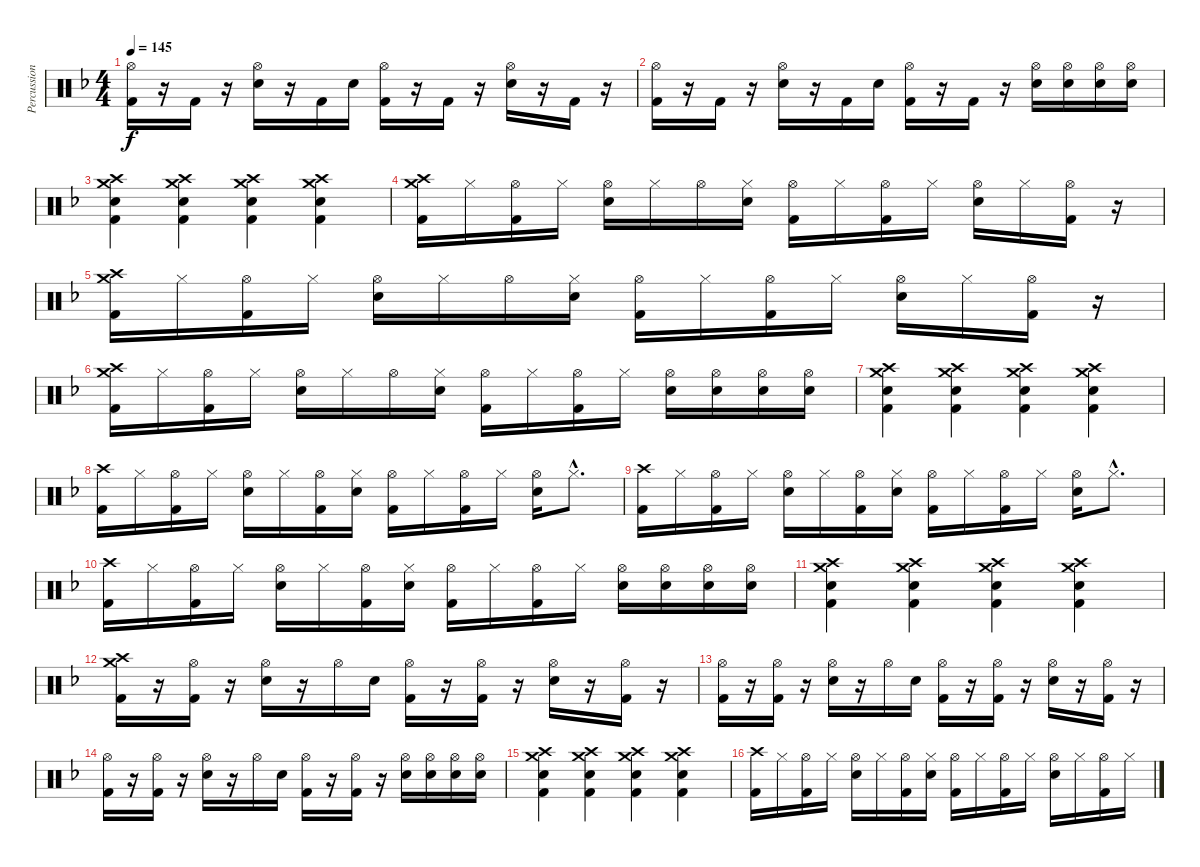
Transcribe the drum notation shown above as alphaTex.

\track ("Percussion" "Percussion") {instrument percussion}
\staff {score}
\articulation defaults
\ts (4 4)
\tempo 145
\clef neutral
\ks f
("Hi-Hat (open)" "Kick (hit) 2").16{dy f} r.16 "Kick (hit) 2".16 r.16 ("Hi-Hat (open)" "Electric Snare (hit)").16 r.16 "Kick (hit) 2".16 "Electric Snare (hit)".16 ("Hi-Hat (open)" "Kick (hit) 2").16 r.16 "Kick (hit) 2".16 r.16 ("Hi-Hat (open)" "Electric Snare (hit)").16 r.16 "Kick (hit) 2".16 r.16 |
("Hi-Hat (open)" "Kick (hit) 2").16 r.16 "Kick (hit) 2".16 r.16 ("Hi-Hat (open)" "Electric Snare (hit)").16 r.16 "Kick (hit) 2".16 "Electric Snare (hit)".16 ("Hi-Hat (open)" "Kick (hit) 2").16 r.16 "Kick (hit) 2".16 r.16 ("Hi-Hat (open)" "Electric Snare (hit)").16 ("Hi-Hat (open)" "Electric Snare (hit)").16 ("Hi-Hat (open)" "Electric Snare (hit)").16 ("Hi-Hat (open)" "Electric Snare (hit)").16 |
("Crash high (hit)" "Crash medium (hit)" "Electric Snare (hit)" "Kick (hit) 2").4 ("Crash high (hit)" "Crash medium (hit)" "Electric Snare (hit)" "Kick (hit) 2").4 ("Crash high (hit)" "Crash medium (hit)" "Electric Snare (hit)" "Kick (hit) 2").4 ("Crash high (hit)" "Crash medium (hit)" "Electric Snare (hit)" "Kick (hit) 2").4 |
("Crash high (hit)" "Crash medium (hit)" "Kick (hit) 2").16 "Hi-Hat (closed)".16 ("Hi-Hat (open)" "Kick (hit) 2").16 "Hi-Hat (closed)".16 ("Hi-Hat (open)" "Electric Snare (hit)").16 "Hi-Hat (closed)".16 "Hi-Hat (open)".16 ("Hi-Hat (closed)" "Electric Snare (hit)").16 ("Hi-Hat (open)" "Kick (hit) 2").16 "Hi-Hat (closed)".16 ("Hi-Hat (open)" "Kick (hit) 2").16 "Hi-Hat (closed)".16 ("Hi-Hat (open)" "Electric Snare (hit)").16 "Hi-Hat (closed)".16 ("Hi-Hat (open)" "Kick (hit) 2").16 r.16 |
("Crash high (hit)" "Crash medium (hit)" "Kick (hit) 2").16 "Hi-Hat (closed)".16 ("Hi-Hat (open)" "Kick (hit) 2").16 "Hi-Hat (closed)".16 ("Hi-Hat (open)" "Electric Snare (hit)").16 "Hi-Hat (closed)".16 "Hi-Hat (open)".16 ("Hi-Hat (closed)" "Electric Snare (hit)").16 ("Hi-Hat (open)" "Kick (hit) 2").16 "Hi-Hat (closed)".16 ("Hi-Hat (open)" "Kick (hit) 2").16 "Hi-Hat (closed)".16 ("Hi-Hat (open)" "Electric Snare (hit)").16 "Hi-Hat (closed)".16 ("Hi-Hat (open)" "Kick (hit) 2").16 r.16 |
("Crash high (hit)" "Crash medium (hit)" "Kick (hit) 2").16 "Hi-Hat (closed)".16 ("Hi-Hat (open)" "Kick (hit) 2").16 "Hi-Hat (closed)".16 ("Hi-Hat (open)" "Electric Snare (hit)").16 "Hi-Hat (closed)".16 "Hi-Hat (open)".16 ("Hi-Hat (closed)" "Electric Snare (hit)").16 ("Hi-Hat (open)" "Kick (hit) 2").16 "Hi-Hat (closed)".16 ("Hi-Hat (open)" "Kick (hit) 2").16 "Hi-Hat (closed)".16 ("Hi-Hat (open)" "Electric Snare (hit)").16 ("Hi-Hat (open)" "Electric Snare (hit)").16 ("Hi-Hat (open)" "Electric Snare (hit)").16 ("Hi-Hat (open)" "Electric Snare (hit)").16 |
("Crash high (hit)" "Crash medium (hit)" "Electric Snare (hit)" "Kick (hit) 2").4 ("Crash high (hit)" "Crash medium (hit)" "Electric Snare (hit)" "Kick (hit) 2").4 ("Crash high (hit)" "Crash medium (hit)" "Electric Snare (hit)" "Kick (hit) 2").4 ("Crash high (hit)" "Crash medium (hit)" "Electric Snare (hit)" "Kick (hit) 2").4 |
("Crash high (hit)" "Kick (hit) 2").16 "Hi-Hat (closed)".16 ("Hi-Hat (open)" "Kick (hit) 2").16 "Hi-Hat (closed)".16 ("Hi-Hat (open)" "Electric Snare (hit)").16 "Hi-Hat (closed)".16 ("Hi-Hat (open)" "Kick (hit) 2").16 ("Hi-Hat (closed)" "Electric Snare (hit)").16 ("Hi-Hat (open)" "Kick (hit) 2").16 "Hi-Hat (closed)".16 ("Hi-Hat (open)" "Kick (hit) 2").16 "Hi-Hat (closed)".16 ("Hi-Hat (open)" "Electric Snare (hit)").16 "Hi-Hat (closed)"{hac}.8{d} |
("Crash high (hit)" "Kick (hit) 2").16 "Hi-Hat (closed)".16 ("Hi-Hat (open)" "Kick (hit) 2").16 "Hi-Hat (closed)".16 ("Hi-Hat (open)" "Electric Snare (hit)").16 "Hi-Hat (closed)".16 ("Hi-Hat (open)" "Kick (hit) 2").16 ("Hi-Hat (closed)" "Electric Snare (hit)").16 ("Hi-Hat (open)" "Kick (hit) 2").16 "Hi-Hat (closed)".16 ("Hi-Hat (open)" "Kick (hit) 2").16 "Hi-Hat (closed)".16 ("Hi-Hat (open)" "Electric Snare (hit)").16 "Hi-Hat (closed)"{hac}.8{d} |
("Crash high (hit)" "Kick (hit) 2").16 "Hi-Hat (closed)".16 ("Hi-Hat (open)" "Kick (hit) 2").16 "Hi-Hat (closed)".16 ("Hi-Hat (open)" "Electric Snare (hit)").16 "Hi-Hat (closed)".16 ("Hi-Hat (open)" "Kick (hit) 2").16 ("Hi-Hat (closed)" "Electric Snare (hit)").16 ("Hi-Hat (open)" "Kick (hit) 2").16 "Hi-Hat (closed)".16 ("Hi-Hat (open)" "Kick (hit) 2").16 "Hi-Hat (closed)".16 ("Hi-Hat (open)" "Electric Snare (hit)").16 ("Hi-Hat (open)" "Electric Snare (hit)").16 ("Hi-Hat (open)" "Electric Snare (hit)").16 ("Hi-Hat (open)" "Electric Snare (hit)").16 |
("Crash high (hit)" "Crash medium (hit)" "Electric Snare (hit)" "Kick (hit) 2").4 ("Crash high (hit)" "Crash medium (hit)" "Electric Snare (hit)" "Kick (hit) 2").4 ("Crash high (hit)" "Crash medium (hit)" "Electric Snare (hit)" "Kick (hit) 2").4 ("Crash high (hit)" "Crash medium (hit)" "Electric Snare (hit)" "Kick (hit) 2").4 |
("Crash high (hit)" "Crash medium (hit)" "Kick (hit) 2").16 r.16 ("Hi-Hat (open)" "Kick (hit) 2").16 r.16 ("Hi-Hat (open)" "Electric Snare (hit)").16 r.16 "Hi-Hat (open)".16 "Electric Snare (hit)".16 ("Hi-Hat (open)" "Kick (hit) 2").16 r.16 ("Hi-Hat (open)" "Kick (hit) 2").16 r.16 ("Hi-Hat (open)" "Electric Snare (hit)").16 r.16 ("Hi-Hat (open)" "Kick (hit) 2").16 r.16 |
("Hi-Hat (open)" "Kick (hit) 2").16 r.16 ("Hi-Hat (open)" "Kick (hit) 2").16 r.16 ("Hi-Hat (open)" "Electric Snare (hit)").16 r.16 "Hi-Hat (open)".16 "Electric Snare (hit)".16 ("Hi-Hat (open)" "Kick (hit) 2").16 r.16 ("Hi-Hat (open)" "Kick (hit) 2").16 r.16 ("Hi-Hat (open)" "Electric Snare (hit)").16 r.16 ("Hi-Hat (open)" "Kick (hit) 2").16 r.16 |
("Hi-Hat (open)" "Kick (hit) 2").16 r.16 ("Hi-Hat (open)" "Kick (hit) 2").16 r.16 ("Hi-Hat (open)" "Electric Snare (hit)").16 r.16 "Hi-Hat (open)".16 "Electric Snare (hit)".16 ("Hi-Hat (open)" "Kick (hit) 2").16 r.16 ("Hi-Hat (open)" "Kick (hit) 2").16 r.16 ("Hi-Hat (open)" "Electric Snare (hit)").16 ("Hi-Hat (open)" "Electric Snare (hit)").16 ("Hi-Hat (open)" "Electric Snare (hit)").16 ("Hi-Hat (open)" "Electric Snare (hit)").16 |
("Crash high (hit)" "Crash medium (hit)" "Electric Snare (hit)" "Kick (hit) 2").4 ("Crash high (hit)" "Crash medium (hit)" "Electric Snare (hit)" "Kick (hit) 2").4 ("Crash high (hit)" "Crash medium (hit)" "Electric Snare (hit)" "Kick (hit) 2").4 ("Crash high (hit)" "Crash medium (hit)" "Electric Snare (hit)" "Kick (hit) 2").4 |
("Crash high (hit)" "Kick (hit) 2").16 "Hi-Hat (closed)".16 ("Hi-Hat (open)" "Kick (hit) 2").16 "Hi-Hat (closed)".16 ("Hi-Hat (open)" "Electric Snare (hit)").16 "Hi-Hat (closed)".16 ("Hi-Hat (open)" "Kick (hit) 2").16 ("Hi-Hat (closed)" "Electric Snare (hit)").16 ("Hi-Hat (open)" "Kick (hit) 2").16 "Hi-Hat (closed)".16 ("Hi-Hat (open)" "Kick (hit) 2").16 "Hi-Hat (closed)".16 ("Hi-Hat (open)" "Electric Snare (hit)").16 "Hi-Hat (closed)".16 ("Hi-Hat (open)" "Kick (hit) 2").16 "Hi-Hat (closed)".16
